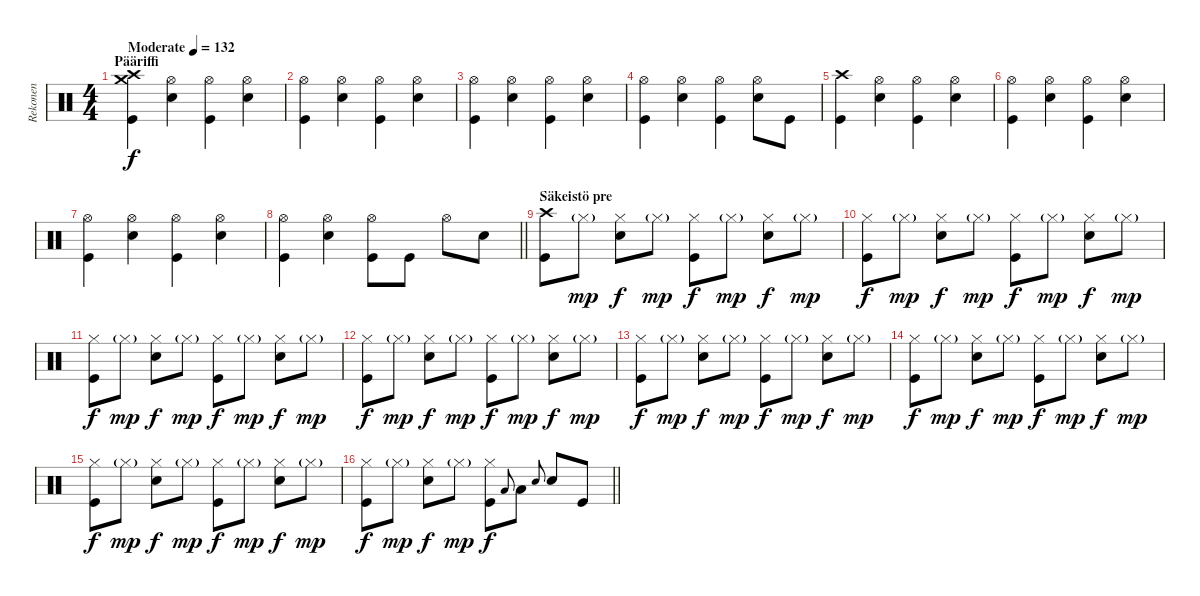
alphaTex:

\track ("Rekonen" "Rekonen") {instrument percussion}
\staff {score}
\articulation defaults
\ts (4 4)
\section ("" "Pääriffi")
\tempo (132 "Moderate")
\clef neutral
\ks c
("Kick (hit)" "Crash high (hit)" "Crash medium (hit)").4{dy f} ("Electric Snare (hit)" "Hi-Hat (open)").4 ("Kick (hit)" "Hi-Hat (open)").4 ("Electric Snare (hit)" "Hi-Hat (open)").4 |
("Kick (hit)" "Hi-Hat (open)").4 ("Electric Snare (hit)" "Hi-Hat (open)").4 ("Kick (hit)" "Hi-Hat (open)").4 ("Electric Snare (hit)" "Hi-Hat (open)").4 |
("Kick (hit)" "Hi-Hat (open)").4 ("Electric Snare (hit)" "Hi-Hat (open)").4 ("Kick (hit)" "Hi-Hat (open)").4 ("Electric Snare (hit)" "Hi-Hat (open)").4 |
("Kick (hit)" "Hi-Hat (open)").4 ("Electric Snare (hit)" "Hi-Hat (open)").4 ("Kick (hit)" "Hi-Hat (open)").4 ("Electric Snare (hit)" "Hi-Hat (open)").8 "Kick (hit)".8 |
("Kick (hit)" "Crash high (hit)").4 ("Electric Snare (hit)" "Hi-Hat (open)").4 ("Kick (hit)" "Hi-Hat (open)").4 ("Electric Snare (hit)" "Hi-Hat (open)").4 |
("Kick (hit)" "Hi-Hat (open)").4 ("Electric Snare (hit)" "Hi-Hat (open)").4 ("Kick (hit)" "Hi-Hat (open)").4 ("Electric Snare (hit)" "Hi-Hat (open)").4 |
("Kick (hit)" "Hi-Hat (open)").4 ("Electric Snare (hit)" "Hi-Hat (open)").4 ("Kick (hit)" "Hi-Hat (open)").4 ("Electric Snare (hit)" "Hi-Hat (open)").4 |
\barLineRight lightlight
("Kick (hit)" "Hi-Hat (open)").4 ("Electric Snare (hit)" "Hi-Hat (open)").4 ("Kick (hit)" "Hi-Hat (open)").8 "Kick (hit)".8 "Hi-Hat (open)".8 "Electric Snare (hit)".8 |
\section ("" "Säkeistö pre")
("Kick (hit)" "Crash high (hit)").8 "Hi-Hat (closed)"{g}.8{dy mp} ("Electric Snare (hit)" "Hi-Hat (closed)").8{dy f} "Hi-Hat (closed)"{g}.8{dy mp} ("Kick (hit)" "Hi-Hat (closed)").8{dy f} "Hi-Hat (closed)"{g}.8{dy mp} ("Electric Snare (hit)" "Hi-Hat (closed)").8{dy f} "Hi-Hat (closed)"{g}.8{dy mp} |
("Kick (hit)" "Hi-Hat (closed)").8{dy f} "Hi-Hat (closed)"{g}.8{dy mp} ("Electric Snare (hit)" "Hi-Hat (closed)").8{dy f} "Hi-Hat (closed)"{g}.8{dy mp} ("Kick (hit)" "Hi-Hat (closed)").8{dy f} "Hi-Hat (closed)"{g}.8{dy mp} ("Electric Snare (hit)" "Hi-Hat (closed)").8{dy f} "Hi-Hat (closed)"{g}.8{dy mp} |
("Kick (hit)" "Hi-Hat (closed)").8{dy f} "Hi-Hat (closed)"{g}.8{dy mp} ("Electric Snare (hit)" "Hi-Hat (closed)").8{dy f} "Hi-Hat (closed)"{g}.8{dy mp} ("Kick (hit)" "Hi-Hat (closed)").8{dy f} "Hi-Hat (closed)"{g}.8{dy mp} ("Electric Snare (hit)" "Hi-Hat (closed)").8{dy f} "Hi-Hat (closed)"{g}.8{dy mp} |
("Kick (hit)" "Hi-Hat (closed)").8{dy f} "Hi-Hat (closed)"{g}.8{dy mp} ("Electric Snare (hit)" "Hi-Hat (closed)").8{dy f} "Hi-Hat (closed)"{g}.8{dy mp} ("Kick (hit)" "Hi-Hat (closed)").8{dy f} "Hi-Hat (closed)"{g}.8{dy mp} ("Electric Snare (hit)" "Hi-Hat (closed)").8{dy f} "Hi-Hat (closed)"{g}.8{dy mp} |
("Kick (hit)" "Hi-Hat (closed)").8{dy f} "Hi-Hat (closed)"{g}.8{dy mp} ("Electric Snare (hit)" "Hi-Hat (closed)").8{dy f} "Hi-Hat (closed)"{g}.8{dy mp} ("Kick (hit)" "Hi-Hat (closed)").8{dy f} "Hi-Hat (closed)"{g}.8{dy mp} ("Electric Snare (hit)" "Hi-Hat (closed)").8{dy f} "Hi-Hat (closed)"{g}.8{dy mp} |
("Kick (hit)" "Hi-Hat (closed)").8{dy f} "Hi-Hat (closed)"{g}.8{dy mp} ("Electric Snare (hit)" "Hi-Hat (closed)").8{dy f} "Hi-Hat (closed)"{g}.8{dy mp} ("Kick (hit)" "Hi-Hat (closed)").8{dy f} "Hi-Hat (closed)"{g}.8{dy mp} ("Electric Snare (hit)" "Hi-Hat (closed)").8{dy f} "Hi-Hat (closed)"{g}.8{dy mp} |
("Kick (hit)" "Hi-Hat (closed)").8{dy f} "Hi-Hat (closed)"{g}.8{dy mp} ("Electric Snare (hit)" "Hi-Hat (closed)").8{dy f} "Hi-Hat (closed)"{g}.8{dy mp} ("Kick (hit)" "Hi-Hat (closed)").8{dy f} "Hi-Hat (closed)"{g}.8{dy mp} ("Electric Snare (hit)" "Hi-Hat (closed)").8{dy f} "Hi-Hat (closed)"{g}.8{dy mp} |
\barLineRight lightlight
("Kick (hit)" "Hi-Hat (closed)").8{dy f} "Hi-Hat (closed)"{g}.8{dy mp} ("Electric Snare (hit)" "Hi-Hat (closed)").8{dy f} "Hi-Hat (closed)"{g}.8{dy mp} ("Kick (hit)" "Hi-Hat (closed)").8{dy f} "Low Tom (hit)".8{gr onbeat} "Low Tom (hit)".8 "Electric Snare (hit)".8{gr onbeat} "Electric Snare (hit)".8 "Kick (hit)".8
